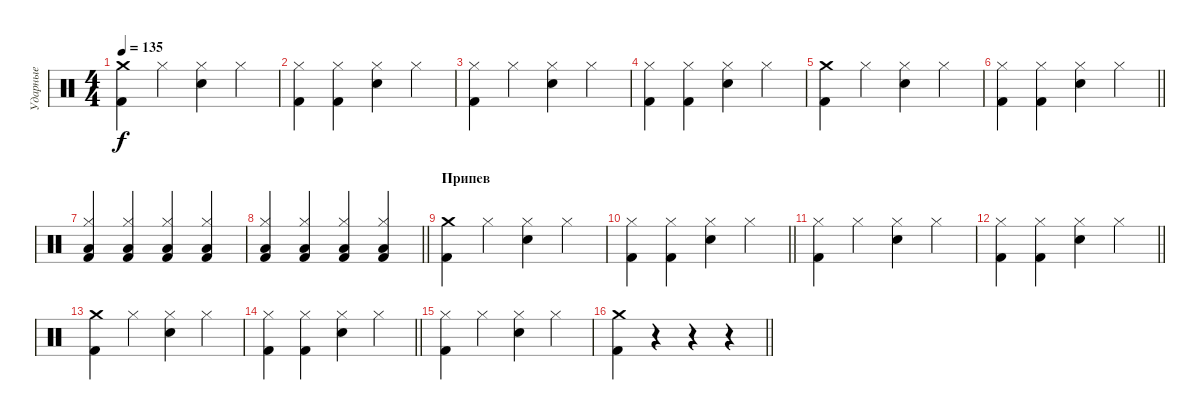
\track ("Ударные" "Ударные") {instrument percussion}
\staff {score}
\articulation defaults
\ts (4 4)
\tempo 135
\clef neutral
\ks c
("Crash medium (hit)" "Kick (hit) 2").4{dy f} "Hi-Hat (closed)".4 ("Hi-Hat (closed)" "Electric Snare (hit)").4 "Hi-Hat (closed)".4 |
("Hi-Hat (closed)" "Kick (hit) 2").4 ("Hi-Hat (closed)" "Kick (hit) 2").4 ("Hi-Hat (closed)" "Electric Snare (hit)").4 "Hi-Hat (closed)".4 |
("Hi-Hat (closed)" "Kick (hit) 2").4 "Hi-Hat (closed)".4 ("Hi-Hat (closed)" "Electric Snare (hit)").4 "Hi-Hat (closed)".4 |
("Hi-Hat (closed)" "Kick (hit) 2").4 ("Hi-Hat (closed)" "Kick (hit) 2").4 ("Hi-Hat (closed)" "Electric Snare (hit)").4 "Hi-Hat (closed)".4 |
("Crash medium (hit)" "Kick (hit) 2").4 "Hi-Hat (closed)".4 ("Hi-Hat (closed)" "Electric Snare (hit)").4 "Hi-Hat (closed)".4 |
\barLineRight lightlight
("Hi-Hat (closed)" "Kick (hit) 2").4 ("Hi-Hat (closed)" "Kick (hit) 2").4 ("Hi-Hat (closed)" "Electric Snare (hit)").4 "Hi-Hat (closed)".4 |
("Hi-Hat (closed)" "Low Tom (hit)" "Kick (hit) 2").4 ("Hi-Hat (closed)" "Low Tom (hit)" "Kick (hit) 2").4 ("Hi-Hat (closed)" "Low Tom (hit)" "Kick (hit) 2").4 ("Hi-Hat (closed)" "Low Tom (hit)" "Kick (hit) 2").4 |
\barLineRight lightlight
("Hi-Hat (closed)" "Low Tom (hit)" "Kick (hit) 2").4 ("Hi-Hat (closed)" "Low Tom (hit)" "Kick (hit) 2").4 ("Hi-Hat (closed)" "Low Tom (hit)" "Kick (hit) 2").4 ("Hi-Hat (closed)" "Low Tom (hit)" "Kick (hit) 2").4 |
\section ("" "Припев")
("Crash medium (hit)" "Kick (hit) 2").4 "Hi-Hat (closed)".4 ("Hi-Hat (closed)" "Electric Snare (hit)").4 "Hi-Hat (closed)".4 |
\barLineRight lightlight
("Hi-Hat (closed)" "Kick (hit) 2").4 ("Hi-Hat (closed)" "Kick (hit) 2").4 ("Hi-Hat (closed)" "Electric Snare (hit)").4 "Hi-Hat (closed)".4 |
("Hi-Hat (closed)" "Kick (hit) 2").4 "Hi-Hat (closed)".4 ("Hi-Hat (closed)" "Electric Snare (hit)").4 "Hi-Hat (closed)".4 |
\barLineRight lightlight
("Hi-Hat (closed)" "Kick (hit) 2").4 ("Hi-Hat (closed)" "Kick (hit) 2").4 ("Hi-Hat (closed)" "Electric Snare (hit)").4 "Hi-Hat (closed)".4 |
("Crash medium (hit)" "Kick (hit) 2").4 "Hi-Hat (closed)".4 ("Hi-Hat (closed)" "Electric Snare (hit)").4 "Hi-Hat (closed)".4 |
\barLineRight lightlight
("Hi-Hat (closed)" "Kick (hit) 2").4 ("Hi-Hat (closed)" "Kick (hit) 2").4 ("Hi-Hat (closed)" "Electric Snare (hit)").4 "Hi-Hat (closed)".4 |
("Hi-Hat (closed)" "Kick (hit) 2").4 "Hi-Hat (closed)".4 ("Hi-Hat (closed)" "Electric Snare (hit)").4 "Hi-Hat (closed)".4 |
\barLineRight lightlight
("Crash medium (hit)" "Kick (hit) 2").4 r.4 r.4 r.4
